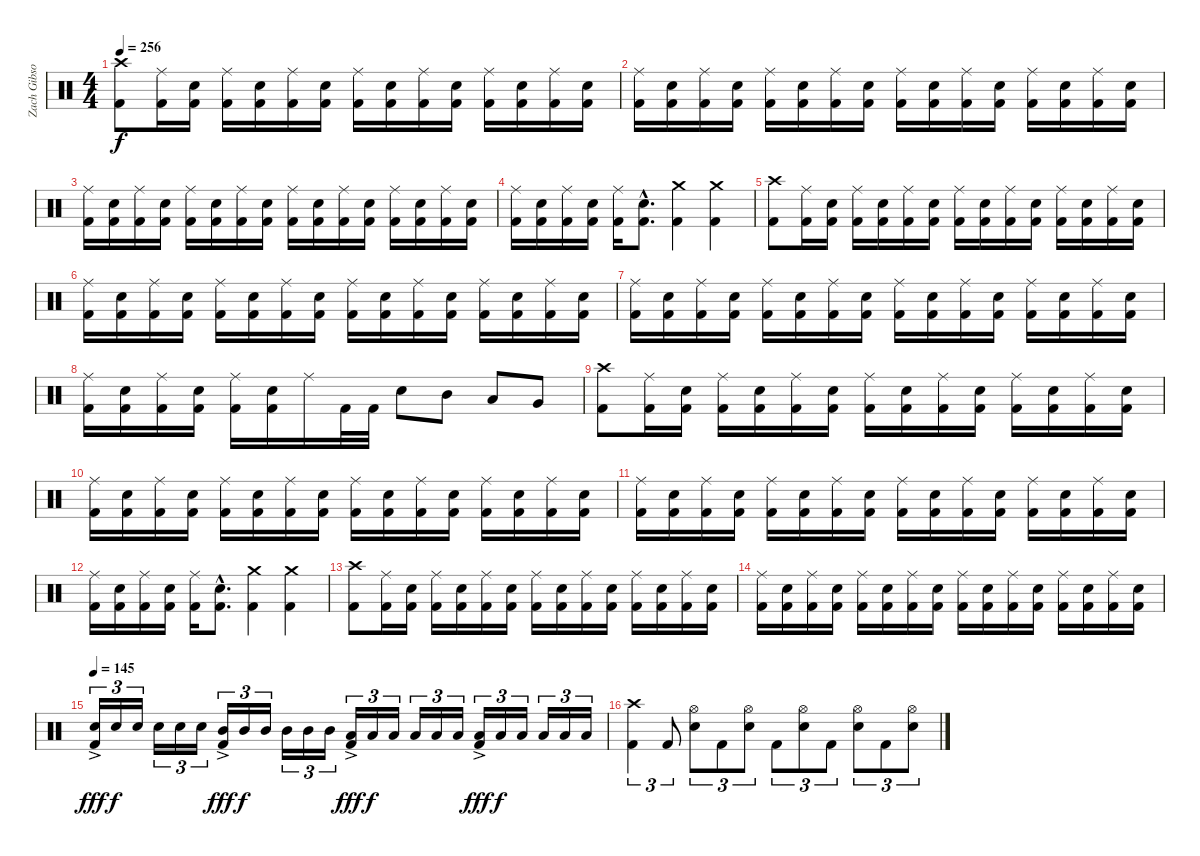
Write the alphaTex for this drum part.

\track ("Zach Gibson (Drums)" "Zach Gibso") {instrument percussion}
\staff {score}
\articulation defaults
\ts (4 4)
\tempo 256
\clef neutral
\ks c
("Crash high (hit)" "Kick (hit) 2").8{dy f} ("Ride (middle)" "Kick (hit) 2").16 ("Snare (hit) 2" "Kick (hit) 2").16 ("Ride (middle)" "Kick (hit) 2").16 ("Snare (hit) 2" "Kick (hit) 2").16 ("Ride (middle)" "Kick (hit) 2").16 ("Snare (hit) 2" "Kick (hit) 2").16 ("Ride (middle)" "Kick (hit) 2").16 ("Snare (hit) 2" "Kick (hit) 2").16 ("Ride (middle)" "Kick (hit) 2").16 ("Snare (hit) 2" "Kick (hit) 2").16 ("Ride (middle)" "Kick (hit) 2").16 ("Kick (hit) 2" "Snare (hit) 2").16 ("Ride (middle)" "Kick (hit) 2").16 ("Kick (hit) 2" "Snare (hit) 2").16 |
("Ride (middle)" "Kick (hit) 2").16 ("Snare (hit) 2" "Kick (hit) 2").16 ("Ride (middle)" "Kick (hit) 2").16 ("Snare (hit) 2" "Kick (hit) 2").16 ("Ride (middle)" "Kick (hit) 2").16 ("Snare (hit) 2" "Kick (hit) 2").16 ("Ride (middle)" "Kick (hit) 2").16 ("Snare (hit) 2" "Kick (hit) 2").16 ("Ride (middle)" "Kick (hit) 2").16 ("Snare (hit) 2" "Kick (hit) 2").16 ("Ride (middle)" "Kick (hit) 2").16 ("Snare (hit) 2" "Kick (hit) 2").16 ("Ride (middle)" "Kick (hit) 2").16 ("Snare (hit) 2" "Kick (hit) 2").16 ("Ride (middle)" "Kick (hit) 2").16 ("Snare (hit) 2" "Kick (hit) 2").16 |
("Ride (middle)" "Kick (hit) 2").16 ("Snare (hit) 2" "Kick (hit) 2").16 ("Ride (middle)" "Kick (hit) 2").16 ("Snare (hit) 2" "Kick (hit) 2").16 ("Ride (middle)" "Kick (hit) 2").16 ("Snare (hit) 2" "Kick (hit) 2").16 ("Ride (middle)" "Kick (hit) 2").16 ("Snare (hit) 2" "Kick (hit) 2").16 ("Ride (middle)" "Kick (hit) 2").16 ("Snare (hit) 2" "Kick (hit) 2").16 ("Ride (middle)" "Kick (hit) 2").16 ("Snare (hit) 2" "Kick (hit) 2").16 ("Ride (middle)" "Kick (hit) 2").16 ("Snare (hit) 2" "Kick (hit) 2").16 ("Ride (middle)" "Kick (hit) 2").16 ("Snare (hit) 2" "Kick (hit) 2").16 |
("Ride (middle)" "Kick (hit) 2").16 ("Snare (hit) 2" "Kick (hit) 2").16 ("Ride (middle)" "Kick (hit) 2").16 ("Snare (hit) 2" "Kick (hit) 2").16 ("Ride (middle)" "Kick (hit) 2").16 ("Snare (hit) 2"{hac} "Kick (hit) 2"{hac}).8{d} ("Crash medium (hit)" "Kick (hit) 2").4 ("Crash medium (hit)" "Kick (hit) 2").4 |
("Crash high (hit)" "Kick (hit) 2").8 ("Ride (middle)" "Kick (hit) 2").16 ("Snare (hit) 2" "Kick (hit) 2").16 ("Ride (middle)" "Kick (hit) 2").16 ("Snare (hit) 2" "Kick (hit) 2").16 ("Ride (middle)" "Kick (hit) 2").16 ("Snare (hit) 2" "Kick (hit) 2").16 ("Ride (middle)" "Kick (hit) 2").16 ("Snare (hit) 2" "Kick (hit) 2").16 ("Ride (middle)" "Kick (hit) 2").16 ("Snare (hit) 2" "Kick (hit) 2").16 ("Ride (middle)" "Kick (hit) 2").16 ("Kick (hit) 2" "Snare (hit) 2").16 ("Ride (middle)" "Kick (hit) 2").16 ("Kick (hit) 2" "Snare (hit) 2").16 |
("Ride (middle)" "Kick (hit) 2").16 ("Snare (hit) 2" "Kick (hit) 2").16 ("Ride (middle)" "Kick (hit) 2").16 ("Snare (hit) 2" "Kick (hit) 2").16 ("Ride (middle)" "Kick (hit) 2").16 ("Snare (hit) 2" "Kick (hit) 2").16 ("Ride (middle)" "Kick (hit) 2").16 ("Snare (hit) 2" "Kick (hit) 2").16 ("Ride (middle)" "Kick (hit) 2").16 ("Snare (hit) 2" "Kick (hit) 2").16 ("Ride (middle)" "Kick (hit) 2").16 ("Snare (hit) 2" "Kick (hit) 2").16 ("Ride (middle)" "Kick (hit) 2").16 ("Snare (hit) 2" "Kick (hit) 2").16 ("Ride (middle)" "Kick (hit) 2").16 ("Snare (hit) 2" "Kick (hit) 2").16 |
("Ride (middle)" "Kick (hit) 2").16 ("Snare (hit) 2" "Kick (hit) 2").16 ("Ride (middle)" "Kick (hit) 2").16 ("Snare (hit) 2" "Kick (hit) 2").16 ("Ride (middle)" "Kick (hit) 2").16 ("Snare (hit) 2" "Kick (hit) 2").16 ("Ride (middle)" "Kick (hit) 2").16 ("Snare (hit) 2" "Kick (hit) 2").16 ("Ride (middle)" "Kick (hit) 2").16 ("Snare (hit) 2" "Kick (hit) 2").16 ("Ride (middle)" "Kick (hit) 2").16 ("Snare (hit) 2" "Kick (hit) 2").16 ("Ride (middle)" "Kick (hit) 2").16 ("Snare (hit) 2" "Kick (hit) 2").16 ("Ride (middle)" "Kick (hit) 2").16 ("Snare (hit) 2" "Kick (hit) 2").16 |
("Ride (middle)" "Kick (hit) 2").16 ("Snare (hit) 2" "Kick (hit) 2").16 ("Ride (middle)" "Kick (hit) 2").16 ("Snare (hit) 2" "Kick (hit) 2").16 ("Ride (middle)" "Kick (hit) 2").16 ("Snare (hit) 2" "Kick (hit) 2").16 "Ride (middle)".16 "Kick (hit) 2".32 "Kick (hit) 2".32 "Snare (hit) 2".8 "Mid Tom (hit)".8 "Low Tom (hit)".8 "Very Low Tom (hit)".8 |
("Crash high (hit)" "Kick (hit) 2").8 ("Ride (middle)" "Kick (hit) 2").16 ("Snare (hit) 2" "Kick (hit) 2").16 ("Ride (middle)" "Kick (hit) 2").16 ("Snare (hit) 2" "Kick (hit) 2").16 ("Ride (middle)" "Kick (hit) 2").16 ("Snare (hit) 2" "Kick (hit) 2").16 ("Ride (middle)" "Kick (hit) 2").16 ("Snare (hit) 2" "Kick (hit) 2").16 ("Ride (middle)" "Kick (hit) 2").16 ("Snare (hit) 2" "Kick (hit) 2").16 ("Ride (middle)" "Kick (hit) 2").16 ("Kick (hit) 2" "Snare (hit) 2").16 ("Ride (middle)" "Kick (hit) 2").16 ("Kick (hit) 2" "Snare (hit) 2").16 |
("Ride (middle)" "Kick (hit) 2").16 ("Snare (hit) 2" "Kick (hit) 2").16 ("Ride (middle)" "Kick (hit) 2").16 ("Snare (hit) 2" "Kick (hit) 2").16 ("Ride (middle)" "Kick (hit) 2").16 ("Snare (hit) 2" "Kick (hit) 2").16 ("Ride (middle)" "Kick (hit) 2").16 ("Snare (hit) 2" "Kick (hit) 2").16 ("Ride (middle)" "Kick (hit) 2").16 ("Snare (hit) 2" "Kick (hit) 2").16 ("Ride (middle)" "Kick (hit) 2").16 ("Snare (hit) 2" "Kick (hit) 2").16 ("Ride (middle)" "Kick (hit) 2").16 ("Snare (hit) 2" "Kick (hit) 2").16 ("Ride (middle)" "Kick (hit) 2").16 ("Snare (hit) 2" "Kick (hit) 2").16 |
("Ride (middle)" "Kick (hit) 2").16 ("Snare (hit) 2" "Kick (hit) 2").16 ("Ride (middle)" "Kick (hit) 2").16 ("Snare (hit) 2" "Kick (hit) 2").16 ("Ride (middle)" "Kick (hit) 2").16 ("Snare (hit) 2" "Kick (hit) 2").16 ("Ride (middle)" "Kick (hit) 2").16 ("Snare (hit) 2" "Kick (hit) 2").16 ("Ride (middle)" "Kick (hit) 2").16 ("Snare (hit) 2" "Kick (hit) 2").16 ("Ride (middle)" "Kick (hit) 2").16 ("Snare (hit) 2" "Kick (hit) 2").16 ("Ride (middle)" "Kick (hit) 2").16 ("Snare (hit) 2" "Kick (hit) 2").16 ("Ride (middle)" "Kick (hit) 2").16 ("Snare (hit) 2" "Kick (hit) 2").16 |
("Ride (middle)" "Kick (hit) 2").16 ("Snare (hit) 2" "Kick (hit) 2").16 ("Ride (middle)" "Kick (hit) 2").16 ("Snare (hit) 2" "Kick (hit) 2").16 ("Ride (middle)" "Kick (hit) 2").16 ("Snare (hit) 2"{hac} "Kick (hit) 2"{hac}).8{d} ("Crash medium (hit)" "Kick (hit) 2").4 ("Crash medium (hit)" "Kick (hit) 2").4 |
("Crash high (hit)" "Kick (hit) 2").8 ("Ride (middle)" "Kick (hit) 2").16 ("Snare (hit) 2" "Kick (hit) 2").16 ("Ride (middle)" "Kick (hit) 2").16 ("Snare (hit) 2" "Kick (hit) 2").16 ("Ride (middle)" "Kick (hit) 2").16 ("Snare (hit) 2" "Kick (hit) 2").16 ("Ride (middle)" "Kick (hit) 2").16 ("Snare (hit) 2" "Kick (hit) 2").16 ("Ride (middle)" "Kick (hit) 2").16 ("Snare (hit) 2" "Kick (hit) 2").16 ("Ride (middle)" "Kick (hit) 2").16 ("Kick (hit) 2" "Snare (hit) 2").16 ("Ride (middle)" "Kick (hit) 2").16 ("Kick (hit) 2" "Snare (hit) 2").16 |
("Ride (middle)" "Kick (hit) 2").16 ("Snare (hit) 2" "Kick (hit) 2").16 ("Ride (middle)" "Kick (hit) 2").16 ("Snare (hit) 2" "Kick (hit) 2").16 ("Ride (middle)" "Kick (hit) 2").16 ("Snare (hit) 2" "Kick (hit) 2").16 ("Ride (middle)" "Kick (hit) 2").16 ("Snare (hit) 2" "Kick (hit) 2").16 ("Ride (middle)" "Kick (hit) 2").16 ("Snare (hit) 2" "Kick (hit) 2").16 ("Ride (middle)" "Kick (hit) 2").16 ("Snare (hit) 2" "Kick (hit) 2").16 ("Ride (middle)" "Kick (hit) 2").16 ("Snare (hit) 2" "Kick (hit) 2").16 ("Ride (middle)" "Kick (hit) 2").16 ("Snare (hit) 2" "Kick (hit) 2").16 |
\tempo 145
("Kick (hit) 2" "Snare (hit) 2"{ac}).16{tu (3 2) dy fff} "Snare (hit) 2".16{tu (3 2) dy f} "Snare (hit) 2".16{tu (3 2)} "Snare (hit) 2".16{tu (3 2)} "Snare (hit) 2".16{tu (3 2)} "Snare (hit) 2".16{tu (3 2)} ("Mid Tom (hit)"{ac} "Kick (hit) 2").16{tu (3 2) dy fff} "Mid Tom (hit)".16{tu (3 2) dy f} "Mid Tom (hit)".16{tu (3 2)} "Mid Tom (hit)".16{tu (3 2)} "Mid Tom (hit)".16{tu (3 2)} "Mid Tom (hit)".16{tu (3 2)} ("Low Tom (hit)"{ac} "Kick (hit) 2").16{tu (3 2) dy fff} "Low Tom (hit)".16{tu (3 2) dy f} "Low Tom (hit)".16{tu (3 2)} "Low Tom (hit)".16{tu (3 2)} "Low Tom (hit)".16{tu (3 2)} "Low Tom (hit)".16{tu (3 2)} ("Low Floor Tom (hit)"{ac} "Kick (hit) 2").16{tu (3 2) dy fff} "Low Floor Tom (hit)".16{tu (3 2) dy f} "Low Floor Tom (hit)".16{tu (3 2)} "Low Floor Tom (hit)".16{tu (3 2)} "Low Floor Tom (hit)".16{tu (3 2)} "Low Floor Tom (hit)".16{tu (3 2)} |
("Crash high (hit)" "Kick (hit) 2").4{tu (3 2)} "Kick (hit) 2".8{tu (3 2)} ("Hi-Hat (open)" "Snare (hit) 2").8{tu (3 2)} "Kick (hit) 2".8{tu (3 2)} ("Hi-Hat (open)" "Snare (hit) 2").8{tu (3 2)} "Kick (hit) 2".8{tu (3 2)} ("Hi-Hat (open)" "Snare (hit) 2").8{tu (3 2)} "Kick (hit) 2".8{tu (3 2)} ("Hi-Hat (open)" "Snare (hit) 2").8{tu (3 2)} "Kick (hit) 2".8{tu (3 2)} ("Hi-Hat (open)" "Snare (hit) 2").8{tu (3 2)}
